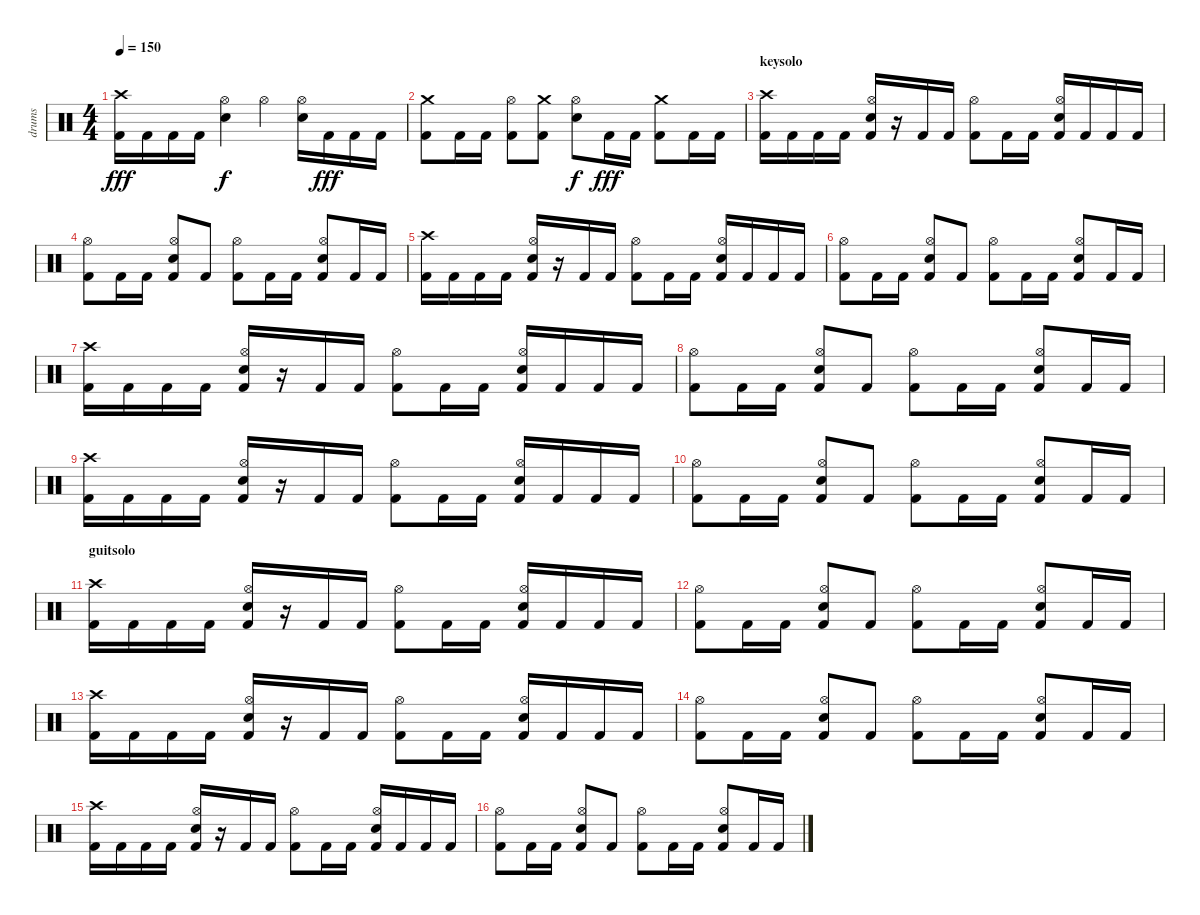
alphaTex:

\track ("drums" "drums") {instrument percussion}
\staff {score}
\articulation defaults
\ts (4 4)
\tempo 150
\clef neutral
\ks c
("Crash high (hit)" "Kick (hit) 2").16{dy fff} "Kick (hit) 2".16 "Kick (hit) 2".16 "Kick (hit) 2".16 ("Hi-Hat (open)" "Snare (hit) 2").4{dy f} "Hi-Hat (open)".4 ("Hi-Hat (open)" "Snare (hit) 2").16 "Kick (hit) 2".16{dy fff} "Kick (hit) 2".16 "Kick (hit) 2".16 |
("Crash medium (hit)" "Kick (hit) 2").8 "Kick (hit) 2".16 "Kick (hit) 2".16 ("Hi-Hat (open)" "Kick (hit) 2").8 ("Crash medium (hit)" "Kick (hit) 2").8 ("Hi-Hat (open)" "Snare (hit) 2").8{dy f} "Kick (hit) 2".16{dy fff} "Kick (hit) 2".16 ("Crash medium (hit)" "Kick (hit) 2").8 "Kick (hit) 2".16 "Kick (hit) 2".16 |
\section ("" "keysolo")
("Crash high (hit)" "Kick (hit) 2").16 "Kick (hit) 2".16 "Kick (hit) 2".16 "Kick (hit) 2".16 ("Hi-Hat (open)" "Snare (hit) 2" "Kick (hit) 2").16 r.16 "Kick (hit) 2".16 "Kick (hit) 2".16 ("Hi-Hat (open)" "Kick (hit) 2").8 "Kick (hit) 2".16 "Kick (hit) 2".16 ("Hi-Hat (open)" "Snare (hit) 2" "Kick (hit) 2").16 "Kick (hit) 2".16 "Kick (hit) 2".16 "Kick (hit) 2".16 |
("Hi-Hat (open)" "Kick (hit) 2").8 "Kick (hit) 2".16 "Kick (hit) 2".16 ("Hi-Hat (open)" "Snare (hit) 2" "Kick (hit) 2").8 "Kick (hit) 2".8 ("Hi-Hat (open)" "Kick (hit) 2").8 "Kick (hit) 2".16 "Kick (hit) 2".16 ("Hi-Hat (open)" "Snare (hit) 2" "Kick (hit) 2").8 "Kick (hit) 2".16 "Kick (hit) 2".16 |
("Crash high (hit)" "Kick (hit) 2").16 "Kick (hit) 2".16 "Kick (hit) 2".16 "Kick (hit) 2".16 ("Hi-Hat (open)" "Snare (hit) 2" "Kick (hit) 2").16 r.16 "Kick (hit) 2".16 "Kick (hit) 2".16 ("Hi-Hat (open)" "Kick (hit) 2").8 "Kick (hit) 2".16 "Kick (hit) 2".16 ("Hi-Hat (open)" "Snare (hit) 2" "Kick (hit) 2").16 "Kick (hit) 2".16 "Kick (hit) 2".16 "Kick (hit) 2".16 |
("Hi-Hat (open)" "Kick (hit) 2").8 "Kick (hit) 2".16 "Kick (hit) 2".16 ("Hi-Hat (open)" "Snare (hit) 2" "Kick (hit) 2").8 "Kick (hit) 2".8 ("Hi-Hat (open)" "Kick (hit) 2").8 "Kick (hit) 2".16 "Kick (hit) 2".16 ("Hi-Hat (open)" "Snare (hit) 2" "Kick (hit) 2").8 "Kick (hit) 2".16 "Kick (hit) 2".16 |
("Crash high (hit)" "Kick (hit) 2").16 "Kick (hit) 2".16 "Kick (hit) 2".16 "Kick (hit) 2".16 ("Hi-Hat (open)" "Snare (hit) 2" "Kick (hit) 2").16 r.16 "Kick (hit) 2".16 "Kick (hit) 2".16 ("Hi-Hat (open)" "Kick (hit) 2").8 "Kick (hit) 2".16 "Kick (hit) 2".16 ("Hi-Hat (open)" "Snare (hit) 2" "Kick (hit) 2").16 "Kick (hit) 2".16 "Kick (hit) 2".16 "Kick (hit) 2".16 |
("Hi-Hat (open)" "Kick (hit) 2").8 "Kick (hit) 2".16 "Kick (hit) 2".16 ("Hi-Hat (open)" "Snare (hit) 2" "Kick (hit) 2").8 "Kick (hit) 2".8 ("Hi-Hat (open)" "Kick (hit) 2").8 "Kick (hit) 2".16 "Kick (hit) 2".16 ("Hi-Hat (open)" "Snare (hit) 2" "Kick (hit) 2").8 "Kick (hit) 2".16 "Kick (hit) 2".16 |
("Crash high (hit)" "Kick (hit) 2").16 "Kick (hit) 2".16 "Kick (hit) 2".16 "Kick (hit) 2".16 ("Hi-Hat (open)" "Snare (hit) 2" "Kick (hit) 2").16 r.16 "Kick (hit) 2".16 "Kick (hit) 2".16 ("Hi-Hat (open)" "Kick (hit) 2").8 "Kick (hit) 2".16 "Kick (hit) 2".16 ("Hi-Hat (open)" "Snare (hit) 2" "Kick (hit) 2").16 "Kick (hit) 2".16 "Kick (hit) 2".16 "Kick (hit) 2".16 |
("Hi-Hat (open)" "Kick (hit) 2").8 "Kick (hit) 2".16 "Kick (hit) 2".16 ("Hi-Hat (open)" "Snare (hit) 2" "Kick (hit) 2").8 "Kick (hit) 2".8 ("Hi-Hat (open)" "Kick (hit) 2").8 "Kick (hit) 2".16 "Kick (hit) 2".16 ("Hi-Hat (open)" "Snare (hit) 2" "Kick (hit) 2").8 "Kick (hit) 2".16 "Kick (hit) 2".16 |
\section ("" "guitsolo")
("Crash high (hit)" "Kick (hit) 2").16 "Kick (hit) 2".16 "Kick (hit) 2".16 "Kick (hit) 2".16 ("Hi-Hat (open)" "Snare (hit) 2" "Kick (hit) 2").16 r.16 "Kick (hit) 2".16 "Kick (hit) 2".16 ("Hi-Hat (open)" "Kick (hit) 2").8 "Kick (hit) 2".16 "Kick (hit) 2".16 ("Hi-Hat (open)" "Snare (hit) 2" "Kick (hit) 2").16 "Kick (hit) 2".16 "Kick (hit) 2".16 "Kick (hit) 2".16 |
("Hi-Hat (open)" "Kick (hit) 2").8 "Kick (hit) 2".16 "Kick (hit) 2".16 ("Hi-Hat (open)" "Snare (hit) 2" "Kick (hit) 2").8 "Kick (hit) 2".8 ("Hi-Hat (open)" "Kick (hit) 2").8 "Kick (hit) 2".16 "Kick (hit) 2".16 ("Hi-Hat (open)" "Snare (hit) 2" "Kick (hit) 2").8 "Kick (hit) 2".16 "Kick (hit) 2".16 |
("Crash high (hit)" "Kick (hit) 2").16 "Kick (hit) 2".16 "Kick (hit) 2".16 "Kick (hit) 2".16 ("Hi-Hat (open)" "Snare (hit) 2" "Kick (hit) 2").16 r.16 "Kick (hit) 2".16 "Kick (hit) 2".16 ("Hi-Hat (open)" "Kick (hit) 2").8 "Kick (hit) 2".16 "Kick (hit) 2".16 ("Hi-Hat (open)" "Snare (hit) 2" "Kick (hit) 2").16 "Kick (hit) 2".16 "Kick (hit) 2".16 "Kick (hit) 2".16 |
("Hi-Hat (open)" "Kick (hit) 2").8 "Kick (hit) 2".16 "Kick (hit) 2".16 ("Hi-Hat (open)" "Snare (hit) 2" "Kick (hit) 2").8 "Kick (hit) 2".8 ("Hi-Hat (open)" "Kick (hit) 2").8 "Kick (hit) 2".16 "Kick (hit) 2".16 ("Hi-Hat (open)" "Snare (hit) 2" "Kick (hit) 2").8 "Kick (hit) 2".16 "Kick (hit) 2".16 |
("Crash high (hit)" "Kick (hit) 2").16 "Kick (hit) 2".16 "Kick (hit) 2".16 "Kick (hit) 2".16 ("Hi-Hat (open)" "Snare (hit) 2" "Kick (hit) 2").16 r.16 "Kick (hit) 2".16 "Kick (hit) 2".16 ("Hi-Hat (open)" "Kick (hit) 2").8 "Kick (hit) 2".16 "Kick (hit) 2".16 ("Hi-Hat (open)" "Snare (hit) 2" "Kick (hit) 2").16 "Kick (hit) 2".16 "Kick (hit) 2".16 "Kick (hit) 2".16 |
("Hi-Hat (open)" "Kick (hit) 2").8 "Kick (hit) 2".16 "Kick (hit) 2".16 ("Hi-Hat (open)" "Snare (hit) 2" "Kick (hit) 2").8 "Kick (hit) 2".8 ("Hi-Hat (open)" "Kick (hit) 2").8 "Kick (hit) 2".16 "Kick (hit) 2".16 ("Hi-Hat (open)" "Snare (hit) 2" "Kick (hit) 2").8 "Kick (hit) 2".16 "Kick (hit) 2".16
